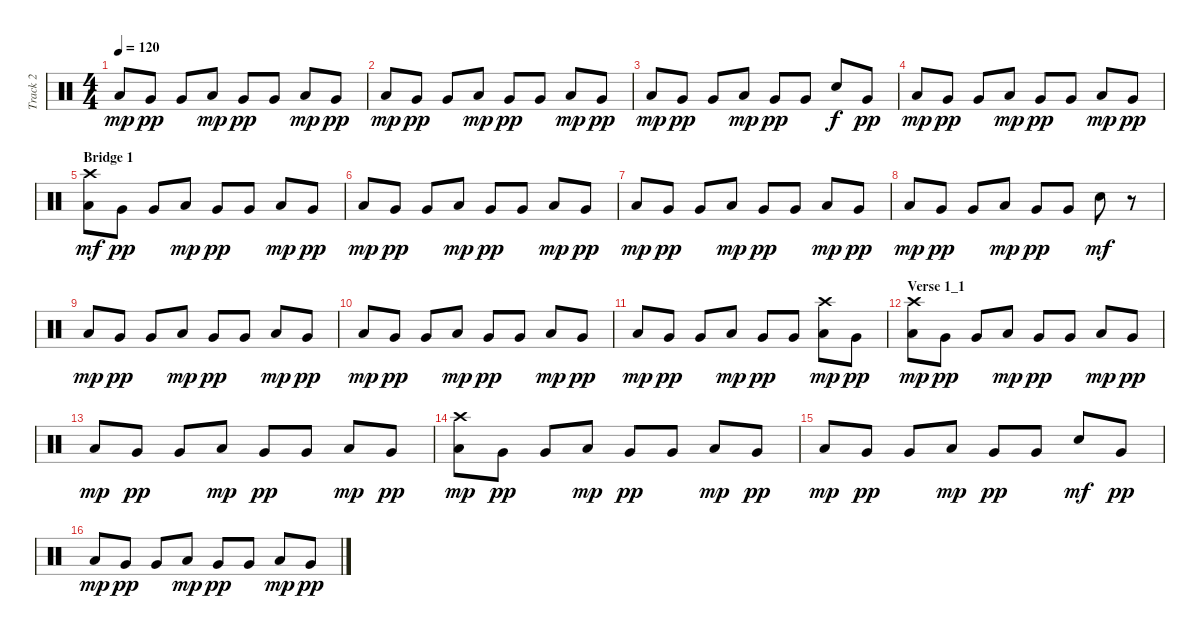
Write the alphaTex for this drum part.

\track ("Track 2" "Track 2") {instrument percussion}
\staff {score}
\articulation defaults
\ts (4 4)
\tempo 120
\clef neutral
\ks c "Low Tom (hit)".8{dy mp} "Very Low Tom (hit)".8{dy pp} "Very Low Tom (hit)".8 "Low Tom (hit)".8{dy mp} "Very Low Tom (hit)".8{dy pp} "Very Low Tom (hit)".8 "Low Tom (hit)".8{dy mp} "Very Low Tom (hit)".8{dy pp}
|
"Low Tom (hit)".8{dy mp} "Very Low Tom (hit)".8{dy pp} "Very Low Tom (hit)".8 "Low Tom (hit)".8{dy mp} "Very Low Tom (hit)".8{dy pp} "Very Low Tom (hit)".8 "Low Tom (hit)".8{dy mp} "Very Low Tom (hit)".8{dy pp} |
"Low Tom (hit)".8{dy mp} "Very Low Tom (hit)".8{dy pp} "Very Low Tom (hit)".8 "Low Tom (hit)".8{dy mp} "Very Low Tom (hit)".8{dy pp} "Very Low Tom (hit)".8 "Electric Snare (hit)".8{dy f} "Very Low Tom (hit)".8{dy pp} |
"Low Tom (hit)".8{dy mp} "Very Low Tom (hit)".8{dy pp} "Very Low Tom (hit)".8 "Low Tom (hit)".8{dy mp} "Very Low Tom (hit)".8{dy pp} "Very Low Tom (hit)".8 "Low Tom (hit)".8{dy mp} "Very Low Tom (hit)".8{dy pp} |
\section ("" "Bridge 1")
("Low Tom (hit)" "Crash high (hit)").8{dy mf} "Very Low Tom (hit)".8{dy pp} "Very Low Tom (hit)".8 "Low Tom (hit)".8{dy mp} "Very Low Tom (hit)".8{dy pp} "Very Low Tom (hit)".8 "Low Tom (hit)".8{dy mp} "Very Low Tom (hit)".8{dy pp} |
"Low Tom (hit)".8{dy mp} "Very Low Tom (hit)".8{dy pp} "Very Low Tom (hit)".8 "Low Tom (hit)".8{dy mp} "Very Low Tom (hit)".8{dy pp} "Very Low Tom (hit)".8 "Low Tom (hit)".8{dy mp} "Very Low Tom (hit)".8{dy pp} |
"Low Tom (hit)".8{dy mp} "Very Low Tom (hit)".8{dy pp} "Very Low Tom (hit)".8 "Low Tom (hit)".8{dy mp} "Very Low Tom (hit)".8{dy pp} "Very Low Tom (hit)".8 "Low Tom (hit)".8{dy mp} "Very Low Tom (hit)".8{dy pp} |
"Low Tom (hit)".8{dy mp} "Very Low Tom (hit)".8{dy pp} "Very Low Tom (hit)".8 "Low Tom (hit)".8{dy mp} "Very Low Tom (hit)".8{dy pp} "Very Low Tom (hit)".8 "Electric Snare (hit)".8{dy mf} r.8 |
"Low Tom (hit)".8{dy mp} "Very Low Tom (hit)".8{dy pp} "Very Low Tom (hit)".8 "Low Tom (hit)".8{dy mp} "Very Low Tom (hit)".8{dy pp} "Very Low Tom (hit)".8 "Low Tom (hit)".8{dy mp} "Very Low Tom (hit)".8{dy pp} |
"Low Tom (hit)".8{dy mp} "Very Low Tom (hit)".8{dy pp} "Very Low Tom (hit)".8 "Low Tom (hit)".8{dy mp} "Very Low Tom (hit)".8{dy pp} "Very Low Tom (hit)".8 "Low Tom (hit)".8{dy mp} "Very Low Tom (hit)".8{dy pp} |
"Low Tom (hit)".8{dy mp} "Very Low Tom (hit)".8{dy pp} "Very Low Tom (hit)".8 "Low Tom (hit)".8{dy mp} "Very Low Tom (hit)".8{dy pp} "Very Low Tom (hit)".8 ("Low Tom (hit)" "Crash high (hit)").8{dy mp} "Very Low Tom (hit)".8{dy pp} |
\section ("" "Verse 1_1")
("Low Tom (hit)" "Crash high (hit)").8{dy mp} "Very Low Tom (hit)".8{dy pp} "Very Low Tom (hit)".8 "Low Tom (hit)".8{dy mp} "Very Low Tom (hit)".8{dy pp} "Very Low Tom (hit)".8 "Low Tom (hit)".8{dy mp} "Very Low Tom (hit)".8{dy pp} |
"Low Tom (hit)".8{dy mp} "Very Low Tom (hit)".8{dy pp} "Very Low Tom (hit)".8 "Low Tom (hit)".8{dy mp} "Very Low Tom (hit)".8{dy pp} "Very Low Tom (hit)".8 "Low Tom (hit)".8{dy mp} "Very Low Tom (hit)".8{dy pp} |
("Low Tom (hit)" "Crash high (hit)").8{dy mp} "Very Low Tom (hit)".8{dy pp} "Very Low Tom (hit)".8 "Low Tom (hit)".8{dy mp} "Very Low Tom (hit)".8{dy pp} "Very Low Tom (hit)".8 "Low Tom (hit)".8{dy mp} "Very Low Tom (hit)".8{dy pp} |
"Low Tom (hit)".8{dy mp} "Very Low Tom (hit)".8{dy pp} "Very Low Tom (hit)".8 "Low Tom (hit)".8{dy mp} "Very Low Tom (hit)".8{dy pp} "Very Low Tom (hit)".8 "Electric Snare (hit)".8{dy mf} "Very Low Tom (hit)".8{dy pp} |
"Low Tom (hit)".8{dy mp} "Very Low Tom (hit)".8{dy pp} "Very Low Tom (hit)".8 "Low Tom (hit)".8{dy mp} "Very Low Tom (hit)".8{dy pp} "Very Low Tom (hit)".8 "Low Tom (hit)".8{dy mp} "Very Low Tom (hit)".8{dy pp}
